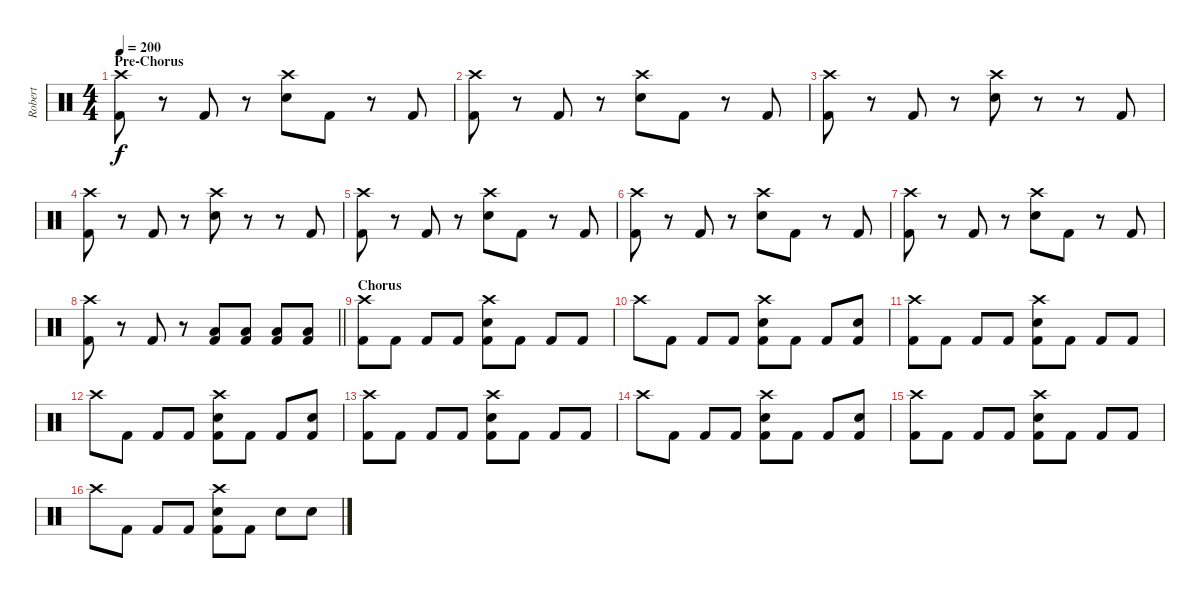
\track ("Robert" "Robert") {instrument percussion}
\staff {score}
\articulation defaults
\ts (4 4)
\section ("" "Pre-Chorus")
\tempo 200
\clef neutral
\ks c
("Crash high (hit)" "Kick (hit) 2").8{dy f} r.8 "Kick (hit) 2".8 r.8 ("Crash high (hit)" "Electric Snare (hit)").8 "Kick (hit) 2".8 r.8 "Kick (hit) 2".8 |
("Crash high (hit)" "Kick (hit) 2").8 r.8 "Kick (hit) 2".8 r.8 ("Crash high (hit)" "Electric Snare (hit)").8 "Kick (hit) 2".8 r.8 "Kick (hit) 2".8 |
("Crash high (hit)" "Kick (hit) 2").8 r.8 "Kick (hit) 2".8 r.8 ("Crash high (hit)" "Electric Snare (hit)").8 r.8 r.8 "Kick (hit) 2".8 |
("Crash high (hit)" "Kick (hit) 2").8 r.8 "Kick (hit) 2".8 r.8 ("Crash high (hit)" "Electric Snare (hit)").8 r.8 r.8 "Kick (hit) 2".8 |
("Crash high (hit)" "Kick (hit) 2").8 r.8 "Kick (hit) 2".8 r.8 ("Crash high (hit)" "Electric Snare (hit)").8 "Kick (hit) 2".8 r.8 "Kick (hit) 2".8 |
("Crash high (hit)" "Kick (hit) 2").8 r.8 "Kick (hit) 2".8 r.8 ("Crash high (hit)" "Electric Snare (hit)").8 "Kick (hit) 2".8 r.8 "Kick (hit) 2".8 |
("Crash high (hit)" "Kick (hit) 2").8 r.8 "Kick (hit) 2".8 r.8 ("Crash high (hit)" "Electric Snare (hit)").8 "Kick (hit) 2".8 r.8 "Kick (hit) 2".8 |
\barLineRight lightlight
("Crash high (hit)" "Kick (hit) 2").8 r.8 "Kick (hit) 2".8 r.8 ("Low Tom (hit)" "Kick (hit) 2").8 ("Low Tom (hit)" "Kick (hit) 2").8 ("Low Tom (hit)" "Kick (hit) 2").8 ("Low Tom (hit)" "Kick (hit) 2").8 |
\section ("" "Chorus")
("Crash high (hit)" "Kick (hit) 2").8 "Kick (hit) 2".8 "Kick (hit) 2".8 "Kick (hit) 2".8 ("Crash high (hit)" "Electric Snare (hit)" "Kick (hit) 2").8 "Kick (hit) 2".8 "Kick (hit) 2".8 "Kick (hit) 2".8 |
"Crash high (hit)".8 "Kick (hit) 2".8 "Kick (hit) 2".8 "Kick (hit) 2".8 ("Crash high (hit)" "Electric Snare (hit)" "Kick (hit) 2").8 "Kick (hit) 2".8 "Kick (hit) 2".8 ("Electric Snare (hit)" "Kick (hit) 2").8 |
("Crash high (hit)" "Kick (hit) 2").8 "Kick (hit) 2".8 "Kick (hit) 2".8 "Kick (hit) 2".8 ("Crash high (hit)" "Electric Snare (hit)" "Kick (hit) 2").8 "Kick (hit) 2".8 "Kick (hit) 2".8 "Kick (hit) 2".8 |
"Crash high (hit)".8 "Kick (hit) 2".8 "Kick (hit) 2".8 "Kick (hit) 2".8 ("Crash high (hit)" "Electric Snare (hit)" "Kick (hit) 2").8 "Kick (hit) 2".8 "Kick (hit) 2".8 ("Electric Snare (hit)" "Kick (hit) 2").8 |
("Crash high (hit)" "Kick (hit) 2").8 "Kick (hit) 2".8 "Kick (hit) 2".8 "Kick (hit) 2".8 ("Crash high (hit)" "Electric Snare (hit)" "Kick (hit) 2").8 "Kick (hit) 2".8 "Kick (hit) 2".8 "Kick (hit) 2".8 |
"Crash high (hit)".8 "Kick (hit) 2".8 "Kick (hit) 2".8 "Kick (hit) 2".8 ("Crash high (hit)" "Electric Snare (hit)" "Kick (hit) 2").8 "Kick (hit) 2".8 "Kick (hit) 2".8 ("Electric Snare (hit)" "Kick (hit) 2").8 |
("Crash high (hit)" "Kick (hit) 2").8 "Kick (hit) 2".8 "Kick (hit) 2".8 "Kick (hit) 2".8 ("Crash high (hit)" "Electric Snare (hit)" "Kick (hit) 2").8 "Kick (hit) 2".8 "Kick (hit) 2".8 "Kick (hit) 2".8 |
"Crash high (hit)".8 "Kick (hit) 2".8 "Kick (hit) 2".8 "Kick (hit) 2".8 ("Crash high (hit)" "Electric Snare (hit)" "Kick (hit) 2").8 "Kick (hit) 2".8 "Electric Snare (hit)".8 "Electric Snare (hit)".8
